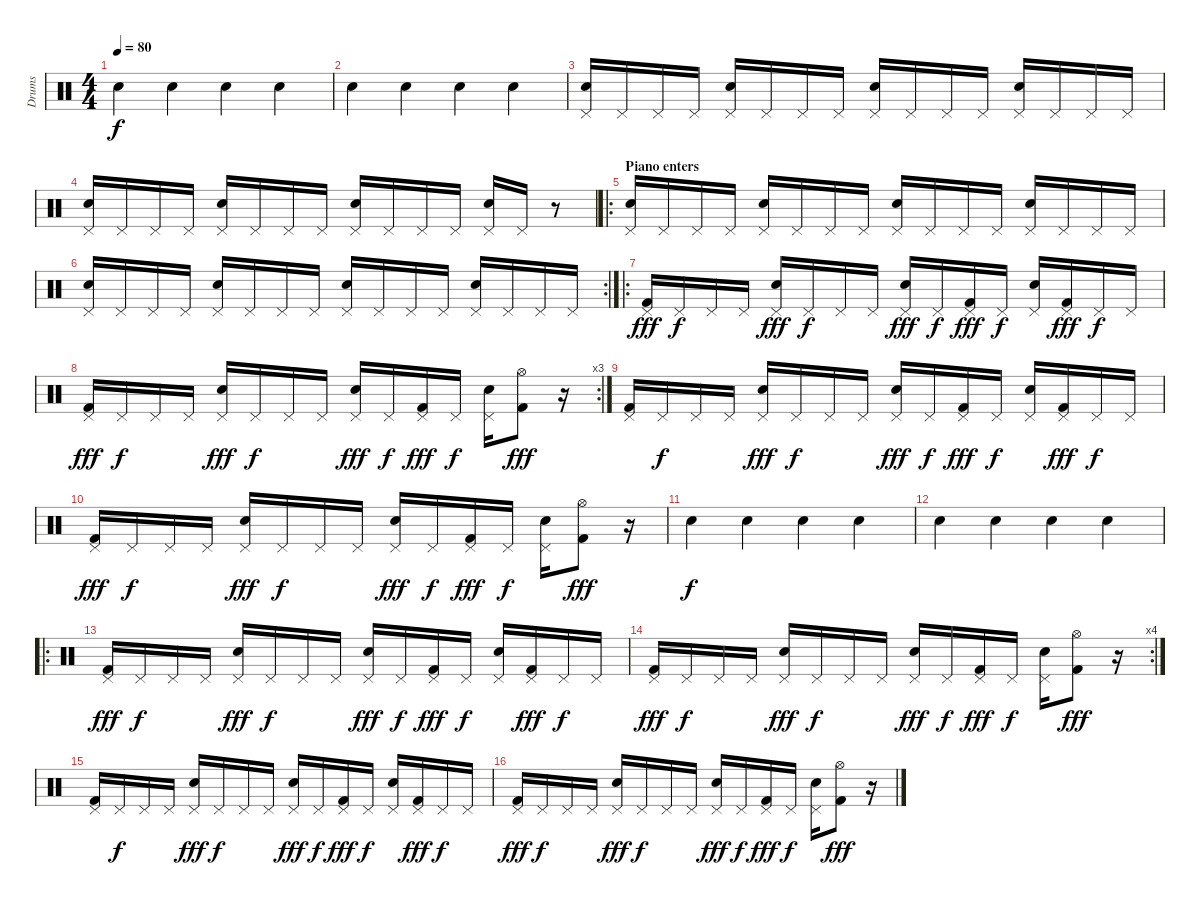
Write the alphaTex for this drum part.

\track ("Drums" "Drums") {instrument percussion}
\staff {score}
\articulation defaults
\ts (4 4)
\tempo 80
\clef neutral
\ks c "Hand Clap (hit)".4{dy f} "Hand Clap (hit)".4 "Hand Clap (hit)".4 "Hand Clap (hit)".4
|
"Hand Clap (hit)".4 "Hand Clap (hit)".4 "Hand Clap (hit)".4 "Hand Clap (hit)".4 |
("Hand Clap (hit)" "Pedal Hi-Hat (hit)").16 "Pedal Hi-Hat (hit)".16 "Pedal Hi-Hat (hit)".16 "Pedal Hi-Hat (hit)".16 ("Hand Clap (hit)" "Pedal Hi-Hat (hit)").16 "Pedal Hi-Hat (hit)".16 "Pedal Hi-Hat (hit)".16 "Pedal Hi-Hat (hit)".16 ("Hand Clap (hit)" "Pedal Hi-Hat (hit)").16 "Pedal Hi-Hat (hit)".16 "Pedal Hi-Hat (hit)".16 "Pedal Hi-Hat (hit)".16 ("Hand Clap (hit)" "Pedal Hi-Hat (hit)").16 "Pedal Hi-Hat (hit)".16 "Pedal Hi-Hat (hit)".16 "Pedal Hi-Hat (hit)".16 |
("Hand Clap (hit)" "Pedal Hi-Hat (hit)").16 "Pedal Hi-Hat (hit)".16 "Pedal Hi-Hat (hit)".16 "Pedal Hi-Hat (hit)".16 ("Hand Clap (hit)" "Pedal Hi-Hat (hit)").16 "Pedal Hi-Hat (hit)".16 "Pedal Hi-Hat (hit)".16 "Pedal Hi-Hat (hit)".16 ("Hand Clap (hit)" "Pedal Hi-Hat (hit)").16 "Pedal Hi-Hat (hit)".16 "Pedal Hi-Hat (hit)".16 "Pedal Hi-Hat (hit)".16 ("Hand Clap (hit)" "Pedal Hi-Hat (hit)").16 "Pedal Hi-Hat (hit)".16 r.8 |
\ro
\section ("" "Piano enters")
("Hand Clap (hit)" "Pedal Hi-Hat (hit)").16 "Pedal Hi-Hat (hit)".16 "Pedal Hi-Hat (hit)".16 "Pedal Hi-Hat (hit)".16 ("Hand Clap (hit)" "Pedal Hi-Hat (hit)").16 "Pedal Hi-Hat (hit)".16 "Pedal Hi-Hat (hit)".16 "Pedal Hi-Hat (hit)".16 ("Hand Clap (hit)" "Pedal Hi-Hat (hit)").16 "Pedal Hi-Hat (hit)".16 "Pedal Hi-Hat (hit)".16 "Pedal Hi-Hat (hit)".16 ("Hand Clap (hit)" "Pedal Hi-Hat (hit)").16 "Pedal Hi-Hat (hit)".16 "Pedal Hi-Hat (hit)".16 "Pedal Hi-Hat (hit)".16 |
\rc 2
("Hand Clap (hit)" "Pedal Hi-Hat (hit)").16 "Pedal Hi-Hat (hit)".16 "Pedal Hi-Hat (hit)".16 "Pedal Hi-Hat (hit)".16 ("Hand Clap (hit)" "Pedal Hi-Hat (hit)").16 "Pedal Hi-Hat (hit)".16 "Pedal Hi-Hat (hit)".16 "Pedal Hi-Hat (hit)".16 ("Hand Clap (hit)" "Pedal Hi-Hat (hit)").16 "Pedal Hi-Hat (hit)".16 "Pedal Hi-Hat (hit)".16 "Pedal Hi-Hat (hit)".16 ("Hand Clap (hit)" "Pedal Hi-Hat (hit)").16 "Pedal Hi-Hat (hit)".16 "Pedal Hi-Hat (hit)".16 "Pedal Hi-Hat (hit)".16 |
\ro
("Pedal Hi-Hat (hit)" "Kick (hit) 2").16{dy fff} "Pedal Hi-Hat (hit)".16{dy f} "Pedal Hi-Hat (hit)".16 "Pedal Hi-Hat (hit)".16 ("Hand Clap (hit)" "Pedal Hi-Hat (hit)").16{dy fff} "Pedal Hi-Hat (hit)".16{dy f} "Pedal Hi-Hat (hit)".16 "Pedal Hi-Hat (hit)".16 ("Hand Clap (hit)" "Pedal Hi-Hat (hit)").16{dy fff} "Pedal Hi-Hat (hit)".16{dy f} ("Pedal Hi-Hat (hit)" "Kick (hit) 2").16{dy fff} "Pedal Hi-Hat (hit)".16{dy f} ("Hand Clap (hit)" "Pedal Hi-Hat (hit)").16 ("Pedal Hi-Hat (hit)" "Kick (hit) 2").16{dy fff} "Pedal Hi-Hat (hit)".16{dy f} "Pedal Hi-Hat (hit)".16 |
\rc 3
("Pedal Hi-Hat (hit)" "Kick (hit) 2").16{dy fff} "Pedal Hi-Hat (hit)".16{dy f} "Pedal Hi-Hat (hit)".16 "Pedal Hi-Hat (hit)".16 ("Hand Clap (hit)" "Pedal Hi-Hat (hit)").16{dy fff} "Pedal Hi-Hat (hit)".16{dy f} "Pedal Hi-Hat (hit)".16 "Pedal Hi-Hat (hit)".16 ("Hand Clap (hit)" "Pedal Hi-Hat (hit)").16{dy fff} "Pedal Hi-Hat (hit)".16{dy f} ("Pedal Hi-Hat (hit)" "Kick (hit) 2").16{dy fff} "Pedal Hi-Hat (hit)".16{dy f} ("Hand Clap (hit)" "Pedal Hi-Hat (hit)").16 ("Hi-Hat (open)" "Kick (hit) 2").8{dy fff} r.16 |
("Pedal Hi-Hat (hit)" "Kick (hit) 2").16 "Pedal Hi-Hat (hit)".16{dy f} "Pedal Hi-Hat (hit)".16 "Pedal Hi-Hat (hit)".16 ("Hand Clap (hit)" "Pedal Hi-Hat (hit)").16{dy fff} "Pedal Hi-Hat (hit)".16{dy f} "Pedal Hi-Hat (hit)".16 "Pedal Hi-Hat (hit)".16 ("Hand Clap (hit)" "Pedal Hi-Hat (hit)").16{dy fff} "Pedal Hi-Hat (hit)".16{dy f} ("Pedal Hi-Hat (hit)" "Kick (hit) 2").16{dy fff} "Pedal Hi-Hat (hit)".16{dy f} ("Hand Clap (hit)" "Pedal Hi-Hat (hit)").16 ("Pedal Hi-Hat (hit)" "Kick (hit) 2").16{dy fff} "Pedal Hi-Hat (hit)".16{dy f} "Pedal Hi-Hat (hit)".16 |
("Pedal Hi-Hat (hit)" "Kick (hit) 2").16{dy fff} "Pedal Hi-Hat (hit)".16{dy f} "Pedal Hi-Hat (hit)".16 "Pedal Hi-Hat (hit)".16 ("Hand Clap (hit)" "Pedal Hi-Hat (hit)").16{dy fff} "Pedal Hi-Hat (hit)".16{dy f} "Pedal Hi-Hat (hit)".16 "Pedal Hi-Hat (hit)".16 ("Hand Clap (hit)" "Pedal Hi-Hat (hit)").16{dy fff} "Pedal Hi-Hat (hit)".16{dy f} ("Pedal Hi-Hat (hit)" "Kick (hit) 2").16{dy fff} "Pedal Hi-Hat (hit)".16{dy f} ("Hand Clap (hit)" "Pedal Hi-Hat (hit)").16 ("Hi-Hat (open)" "Kick (hit) 2").8{dy fff} r.16 |
"Hand Clap (hit)".4{dy f} "Hand Clap (hit)".4 "Hand Clap (hit)".4 "Hand Clap (hit)".4 |
"Hand Clap (hit)".4 "Hand Clap (hit)".4 "Hand Clap (hit)".4 "Hand Clap (hit)".4 |
\ro
("Pedal Hi-Hat (hit)" "Kick (hit) 2").16{dy fff} "Pedal Hi-Hat (hit)".16{dy f} "Pedal Hi-Hat (hit)".16 "Pedal Hi-Hat (hit)".16 ("Hand Clap (hit)" "Pedal Hi-Hat (hit)").16{dy fff} "Pedal Hi-Hat (hit)".16{dy f} "Pedal Hi-Hat (hit)".16 "Pedal Hi-Hat (hit)".16 ("Hand Clap (hit)" "Pedal Hi-Hat (hit)").16{dy fff} "Pedal Hi-Hat (hit)".16{dy f} ("Pedal Hi-Hat (hit)" "Kick (hit) 2").16{dy fff} "Pedal Hi-Hat (hit)".16{dy f} ("Hand Clap (hit)" "Pedal Hi-Hat (hit)").16 ("Pedal Hi-Hat (hit)" "Kick (hit) 2").16{dy fff} "Pedal Hi-Hat (hit)".16{dy f} "Pedal Hi-Hat (hit)".16 |
\rc 4
("Pedal Hi-Hat (hit)" "Kick (hit) 2").16{dy fff} "Pedal Hi-Hat (hit)".16{dy f} "Pedal Hi-Hat (hit)".16 "Pedal Hi-Hat (hit)".16 ("Hand Clap (hit)" "Pedal Hi-Hat (hit)").16{dy fff} "Pedal Hi-Hat (hit)".16{dy f} "Pedal Hi-Hat (hit)".16 "Pedal Hi-Hat (hit)".16 ("Hand Clap (hit)" "Pedal Hi-Hat (hit)").16{dy fff} "Pedal Hi-Hat (hit)".16{dy f} ("Pedal Hi-Hat (hit)" "Kick (hit) 2").16{dy fff} "Pedal Hi-Hat (hit)".16{dy f} ("Hand Clap (hit)" "Pedal Hi-Hat (hit)").16 ("Hi-Hat (open)" "Kick (hit) 2").8{dy fff} r.16 |
("Pedal Hi-Hat (hit)" "Kick (hit) 2").16 "Pedal Hi-Hat (hit)".16{dy f} "Pedal Hi-Hat (hit)".16 "Pedal Hi-Hat (hit)".16 ("Hand Clap (hit)" "Pedal Hi-Hat (hit)").16{dy fff} "Pedal Hi-Hat (hit)".16{dy f} "Pedal Hi-Hat (hit)".16 "Pedal Hi-Hat (hit)".16 ("Hand Clap (hit)" "Pedal Hi-Hat (hit)").16{dy fff} "Pedal Hi-Hat (hit)".16{dy f} ("Pedal Hi-Hat (hit)" "Kick (hit) 2").16{dy fff} "Pedal Hi-Hat (hit)".16{dy f} ("Hand Clap (hit)" "Pedal Hi-Hat (hit)").16 ("Pedal Hi-Hat (hit)" "Kick (hit) 2").16{dy fff} "Pedal Hi-Hat (hit)".16{dy f} "Pedal Hi-Hat (hit)".16 |
("Pedal Hi-Hat (hit)" "Kick (hit) 2").16{dy fff} "Pedal Hi-Hat (hit)".16{dy f} "Pedal Hi-Hat (hit)".16 "Pedal Hi-Hat (hit)".16 ("Hand Clap (hit)" "Pedal Hi-Hat (hit)").16{dy fff} "Pedal Hi-Hat (hit)".16{dy f} "Pedal Hi-Hat (hit)".16 "Pedal Hi-Hat (hit)".16 ("Hand Clap (hit)" "Pedal Hi-Hat (hit)").16{dy fff} "Pedal Hi-Hat (hit)".16{dy f} ("Pedal Hi-Hat (hit)" "Kick (hit) 2").16{dy fff} "Pedal Hi-Hat (hit)".16{dy f} ("Hand Clap (hit)" "Pedal Hi-Hat (hit)").16 ("Hi-Hat (open)" "Kick (hit) 2").8{dy fff} r.16
